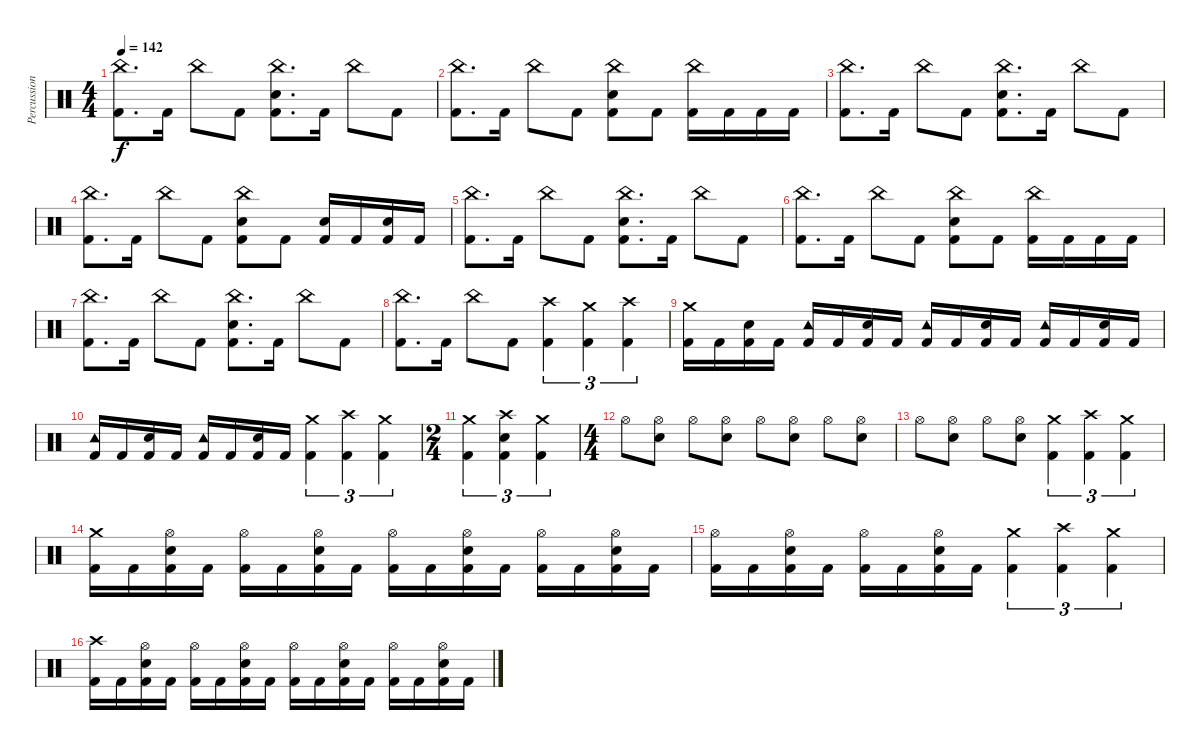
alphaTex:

\track ("Percussion" "Percussion") {instrument percussion}
\staff {score}
\articulation defaults
\ts (4 4)
\tempo 142
\clef neutral
\ks c
("China (hit)" "Kick (hit) 2").8{d dy f} "Kick (hit) 2".16 "China (hit)".8 "Kick (hit) 2".8 ("China (hit)" "Snare (hit) 2" "Kick (hit) 2").8{d} "Kick (hit) 2".16 "China (hit)".8 "Kick (hit) 2".8 |
("China (hit)" "Kick (hit) 2").8{d} "Kick (hit) 2".16 "China (hit)".8 "Kick (hit) 2".8 ("China (hit)" "Snare (hit) 2" "Kick (hit) 2").8 "Kick (hit) 2".8 ("China (hit)" "Kick (hit) 2").16 "Kick (hit) 2".16 "Kick (hit) 2".16 "Kick (hit) 2".16 |
("China (hit)" "Kick (hit) 2").8{d} "Kick (hit) 2".16 "China (hit)".8 "Kick (hit) 2".8 ("China (hit)" "Snare (hit) 2" "Kick (hit) 2").8{d} "Kick (hit) 2".16 "China (hit)".8 "Kick (hit) 2".8 |
("China (hit)" "Kick (hit) 2").8{d} "Kick (hit) 2".16 "China (hit)".8 "Kick (hit) 2".8 ("China (hit)" "Snare (hit) 2" "Kick (hit) 2").8 "Kick (hit) 2".8 ("Snare (hit) 2" "Kick (hit) 2").16 "Kick (hit) 2".16 ("Snare (hit) 2" "Kick (hit) 2").16 "Kick (hit) 2".16 |
("China (hit)" "Kick (hit) 2").8{d} "Kick (hit) 2".16 "China (hit)".8 "Kick (hit) 2".8 ("China (hit)" "Snare (hit) 2" "Kick (hit) 2").8{d} "Kick (hit) 2".16 "China (hit)".8 "Kick (hit) 2".8 |
("China (hit)" "Kick (hit) 2").8{d} "Kick (hit) 2".16 "China (hit)".8 "Kick (hit) 2".8 ("China (hit)" "Snare (hit) 2" "Kick (hit) 2").8 "Kick (hit) 2".8 ("China (hit)" "Kick (hit) 2").16 "Kick (hit) 2".16 "Kick (hit) 2".16 "Kick (hit) 2".16 |
("China (hit)" "Kick (hit) 2").8{d} "Kick (hit) 2".16 "China (hit)".8 "Kick (hit) 2".8 ("China (hit)" "Snare (hit) 2" "Kick (hit) 2").8{d} "Kick (hit) 2".16 "China (hit)".8 "Kick (hit) 2".8 |
("China (hit)" "Kick (hit) 2").8{d} "Kick (hit) 2".16 "China (hit)".8 "Kick (hit) 2".8 ("Crash high (hit)" "Kick (hit) 2").4{tu (3 2)} ("Crash medium (hit)" "Kick (hit) 2").4{tu (3 2)} ("Crash high (hit)" "Kick (hit) 2").4{tu (3 2)} |
("Crash medium (hit)" "Kick (hit) 2").16 "Kick (hit) 2".16 ("Snare (hit) 2" "Kick (hit) 2").16 "Kick (hit) 2".16 ("Tambourine (hit)" "Kick (hit) 2").16 "Kick (hit) 2".16 ("Snare (hit) 2" "Kick (hit) 2").16 "Kick (hit) 2".16 ("Tambourine (hit)" "Kick (hit) 2").16 "Kick (hit) 2".16 ("Snare (hit) 2" "Kick (hit) 2").16 "Kick (hit) 2".16 ("Tambourine (hit)" "Kick (hit) 2").16 "Kick (hit) 2".16 ("Snare (hit) 2" "Kick (hit) 2").16 "Kick (hit) 2".16 |
("Tambourine (hit)" "Kick (hit) 2").16 "Kick (hit) 2".16 ("Snare (hit) 2" "Kick (hit) 2").16 "Kick (hit) 2".16 ("Tambourine (hit)" "Kick (hit) 2").16 "Kick (hit) 2".16 ("Snare (hit) 2" "Kick (hit) 2").16 "Kick (hit) 2".16 ("Crash medium (hit)" "Kick (hit) 2").4{tu (3 2)} ("Crash high (hit)" "Kick (hit) 2").4{tu (3 2)} ("Crash medium (hit)" "Kick (hit) 2").4{tu (3 2)} |
\ts (2 4)
("Crash medium (hit)" "Kick (hit) 2").4{tu (3 2)} ("Crash high (hit)" "Snare (hit) 2" "Kick (hit) 2").4{tu (3 2)} ("Crash medium (hit)" "Kick (hit) 2").4{tu (3 2)} |
\ts (4 4)
"Hi-Hat (open)".8 ("Hi-Hat (open)" "Snare (hit) 2").8 "Hi-Hat (open)".8 ("Hi-Hat (open)" "Snare (hit) 2").8 "Hi-Hat (open)".8 ("Hi-Hat (open)" "Snare (hit) 2").8 "Hi-Hat (open)".8 ("Hi-Hat (open)" "Snare (hit) 2").8 |
"Hi-Hat (open)".8 ("Hi-Hat (open)" "Snare (hit) 2").8 "Hi-Hat (open)".8 ("Hi-Hat (open)" "Snare (hit) 2").8 ("Crash medium (hit)" "Kick (hit) 2").4{tu (3 2)} ("Crash high (hit)" "Kick (hit) 2").4{tu (3 2)} ("Crash medium (hit)" "Kick (hit) 2").4{tu (3 2)} |
("Crash medium (hit)" "Kick (hit) 2").16 "Kick (hit) 2".16 ("Hi-Hat (open)" "Snare (hit) 2" "Kick (hit) 2").16 "Kick (hit) 2".16 ("Hi-Hat (open)" "Kick (hit) 2").16 "Kick (hit) 2".16 ("Hi-Hat (open)" "Snare (hit) 2" "Kick (hit) 2").16 "Kick (hit) 2".16 ("Hi-Hat (open)" "Kick (hit) 2").16 "Kick (hit) 2".16 ("Hi-Hat (open)" "Snare (hit) 2" "Kick (hit) 2").16 "Kick (hit) 2".16 ("Hi-Hat (open)" "Kick (hit) 2").16 "Kick (hit) 2".16 ("Hi-Hat (open)" "Snare (hit) 2" "Kick (hit) 2").16 "Kick (hit) 2".16 |
("Hi-Hat (open)" "Kick (hit) 2").16 "Kick (hit) 2".16 ("Hi-Hat (open)" "Snare (hit) 2" "Kick (hit) 2").16 "Kick (hit) 2".16 ("Hi-Hat (open)" "Kick (hit) 2").16 "Kick (hit) 2".16 ("Hi-Hat (open)" "Snare (hit) 2" "Kick (hit) 2").16 "Kick (hit) 2".16 ("Crash medium (hit)" "Kick (hit) 2").4{tu (3 2)} ("Crash high (hit)" "Kick (hit) 2").4{tu (3 2)} ("Crash medium (hit)" "Kick (hit) 2").4{tu (3 2)} |
("Crash high (hit)" "Kick (hit) 2").16 "Kick (hit) 2".16 ("Hi-Hat (open)" "Snare (hit) 2" "Kick (hit) 2").16 "Kick (hit) 2".16 ("Hi-Hat (open)" "Kick (hit) 2").16 "Kick (hit) 2".16 ("Hi-Hat (open)" "Snare (hit) 2" "Kick (hit) 2").16 "Kick (hit) 2".16 ("Hi-Hat (open)" "Kick (hit) 2").16 "Kick (hit) 2".16 ("Hi-Hat (open)" "Snare (hit) 2" "Kick (hit) 2").16 "Kick (hit) 2".16 ("Hi-Hat (open)" "Kick (hit) 2").16 "Kick (hit) 2".16 ("Hi-Hat (open)" "Snare (hit) 2" "Kick (hit) 2").16 "Kick (hit) 2".16
